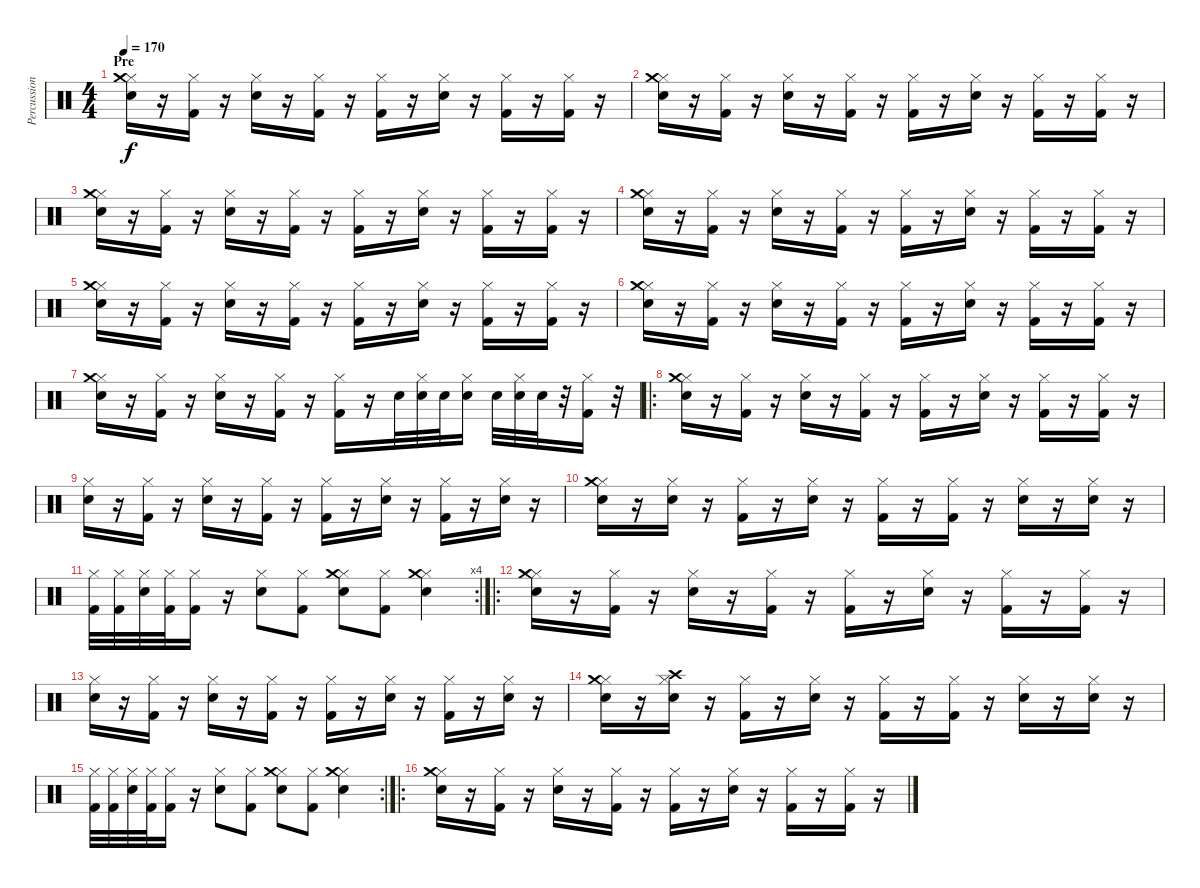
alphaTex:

\track ("Percussion" "Percussion") {instrument percussion}
\staff {score}
\articulation defaults
\ts (4 4)
\section ("" "Pre")
\tempo 170
\clef neutral
\ks c
("Snare (hit) 2" "Hi-Hat (closed)" "Crash medium (hit)").16{dy f} r.16 ("Kick (hit) 2" "Hi-Hat (closed)").16 r.16 ("Snare (hit) 2" "Hi-Hat (closed)").16 r.16 ("Kick (hit) 2" "Hi-Hat (closed)").16 r.16 ("Kick (hit) 2" "Hi-Hat (closed)").16 r.16 ("Snare (hit) 2" "Hi-Hat (closed)").16 r.16 ("Kick (hit) 2" "Hi-Hat (closed)").16 r.16 ("Kick (hit) 2" "Hi-Hat (closed)").16 r.16 |
("Snare (hit) 2" "Hi-Hat (closed)" "Crash medium (hit)").16 r.16 ("Kick (hit) 2" "Hi-Hat (closed)").16 r.16 ("Snare (hit) 2" "Hi-Hat (closed)").16 r.16 ("Kick (hit) 2" "Hi-Hat (closed)").16 r.16 ("Kick (hit) 2" "Hi-Hat (closed)").16 r.16 ("Snare (hit) 2" "Hi-Hat (closed)").16 r.16 ("Kick (hit) 2" "Hi-Hat (closed)").16 r.16 ("Kick (hit) 2" "Hi-Hat (closed)").16 r.16 |
("Snare (hit) 2" "Hi-Hat (closed)" "Crash medium (hit)").16 r.16 ("Kick (hit) 2" "Hi-Hat (closed)").16 r.16 ("Snare (hit) 2" "Hi-Hat (closed)").16 r.16 ("Kick (hit) 2" "Hi-Hat (closed)").16 r.16 ("Kick (hit) 2" "Hi-Hat (closed)").16 r.16 ("Snare (hit) 2" "Hi-Hat (closed)").16 r.16 ("Kick (hit) 2" "Hi-Hat (closed)").16 r.16 ("Kick (hit) 2" "Hi-Hat (closed)").16 r.16 |
("Snare (hit) 2" "Hi-Hat (closed)" "Crash medium (hit)").16 r.16 ("Kick (hit) 2" "Hi-Hat (closed)").16 r.16 ("Snare (hit) 2" "Hi-Hat (closed)").16 r.16 ("Kick (hit) 2" "Hi-Hat (closed)").16 r.16 ("Kick (hit) 2" "Hi-Hat (closed)").16 r.16 ("Snare (hit) 2" "Hi-Hat (closed)").16 r.16 ("Kick (hit) 2" "Hi-Hat (closed)").16 r.16 ("Kick (hit) 2" "Hi-Hat (closed)").16 r.16 |
("Snare (hit) 2" "Hi-Hat (closed)" "Crash medium (hit)").16 r.16 ("Kick (hit) 2" "Hi-Hat (closed)").16 r.16 ("Snare (hit) 2" "Hi-Hat (closed)").16 r.16 ("Kick (hit) 2" "Hi-Hat (closed)").16 r.16 ("Kick (hit) 2" "Hi-Hat (closed)").16 r.16 ("Snare (hit) 2" "Hi-Hat (closed)").16 r.16 ("Kick (hit) 2" "Hi-Hat (closed)").16 r.16 ("Kick (hit) 2" "Hi-Hat (closed)").16 r.16 |
("Snare (hit) 2" "Hi-Hat (closed)" "Crash medium (hit)").16 r.16 ("Kick (hit) 2" "Hi-Hat (closed)").16 r.16 ("Snare (hit) 2" "Hi-Hat (closed)").16 r.16 ("Kick (hit) 2" "Hi-Hat (closed)").16 r.16 ("Kick (hit) 2" "Hi-Hat (closed)").16 r.16 ("Snare (hit) 2" "Hi-Hat (closed)").16 r.16 ("Kick (hit) 2" "Hi-Hat (closed)").16 r.16 ("Kick (hit) 2" "Hi-Hat (closed)").16 r.16 |
("Snare (hit) 2" "Hi-Hat (closed)" "Crash medium (hit)").16 r.16 ("Kick (hit) 2" "Hi-Hat (closed)").16 r.16 ("Snare (hit) 2" "Hi-Hat (closed)").16 r.16 ("Kick (hit) 2" "Hi-Hat (closed)").16 r.16 ("Kick (hit) 2" "Hi-Hat (closed)").16 r.16 "Snare (hit) 2".32 ("Snare (hit) 2" "Hi-Hat (closed)").32 "Snare (hit) 2".32 ("Snare (hit) 2" "Hi-Hat (closed)").16 "Snare (hit) 2".32 ("Snare (hit) 2" "Hi-Hat (closed)").32 "Snare (hit) 2".32 r.32 ("Kick (hit) 2" "Hi-Hat (closed)").16 r.32 |
\ro
("Snare (hit) 2" "Hi-Hat (closed)" "Crash medium (hit)").16 r.16 ("Kick (hit) 2" "Hi-Hat (closed)").16 r.16 ("Snare (hit) 2" "Hi-Hat (closed)").16 r.16 ("Kick (hit) 2" "Hi-Hat (closed)").16 r.16 ("Kick (hit) 2" "Hi-Hat (closed)").16 r.16 ("Snare (hit) 2" "Hi-Hat (closed)").16 r.16 ("Kick (hit) 2" "Hi-Hat (closed)").16 r.16 ("Kick (hit) 2" "Hi-Hat (closed)").16 r.16 |
("Snare (hit) 2" "Hi-Hat (closed)").16 r.16 ("Kick (hit) 2" "Hi-Hat (closed)").16 r.16 ("Snare (hit) 2" "Hi-Hat (closed)").16 r.16 ("Kick (hit) 2" "Hi-Hat (closed)").16 r.16 ("Kick (hit) 2" "Hi-Hat (closed)").16 r.16 ("Snare (hit) 2" "Hi-Hat (closed)").16 r.16 ("Kick (hit) 2" "Hi-Hat (closed)").16 r.16 ("Snare (hit) 2" "Hi-Hat (closed)").16 r.16 |
("Hi-Hat (closed)" "Snare (hit) 2" "Crash medium (hit)").16 r.16 ("Snare (hit) 2" "Hi-Hat (closed)").16 r.16 ("Kick (hit) 2" "Hi-Hat (closed)").16 r.16 ("Snare (hit) 2" "Hi-Hat (closed)").16 r.16 ("Kick (hit) 2" "Hi-Hat (closed)").16 r.16 ("Kick (hit) 2" "Hi-Hat (closed)").16 r.16 ("Snare (hit) 2" "Hi-Hat (closed)").16 r.16 ("Snare (hit) 2" "Hi-Hat (closed)").16 r.16 |
\rc 4
("Kick (hit) 2" "Hi-Hat (closed)").32 ("Kick (hit) 2" "Hi-Hat (closed)").32 ("Snare (hit) 2" "Hi-Hat (closed)").32 ("Kick (hit) 2" "Hi-Hat (closed)").32 ("Kick (hit) 2" "Hi-Hat (closed)").16 r.16 ("Snare (hit) 2" "Hi-Hat (closed)").8 ("Kick (hit) 2" "Hi-Hat (closed)").8 ("Snare (hit) 2" "Hi-Hat (closed)" "Crash medium (hit)").8 ("Kick (hit) 2" "Hi-Hat (closed)").8 ("Snare (hit) 2" "Hi-Hat (closed)" "Crash medium (hit)").4 |
\ro
("Snare (hit) 2" "Hi-Hat (closed)" "Crash medium (hit)").16 r.16 ("Kick (hit) 2" "Hi-Hat (closed)").16 r.16 ("Snare (hit) 2" "Hi-Hat (closed)").16 r.16 ("Kick (hit) 2" "Hi-Hat (closed)").16 r.16 ("Kick (hit) 2" "Hi-Hat (closed)").16 r.16 ("Snare (hit) 2" "Hi-Hat (closed)").16 r.16 ("Kick (hit) 2" "Hi-Hat (closed)").16 r.16 ("Kick (hit) 2" "Hi-Hat (closed)").16 r.16 |
("Snare (hit) 2" "Hi-Hat (closed)").16 r.16 ("Kick (hit) 2" "Hi-Hat (closed)").16 r.16 ("Snare (hit) 2" "Hi-Hat (closed)").16 r.16 ("Kick (hit) 2" "Hi-Hat (closed)").16 r.16 ("Kick (hit) 2" "Hi-Hat (closed)").16 r.16 ("Snare (hit) 2" "Hi-Hat (closed)").16 r.16 ("Kick (hit) 2" "Hi-Hat (closed)").16 r.16 ("Snare (hit) 2" "Hi-Hat (closed)").16 r.16 |
("Hi-Hat (closed)" "Snare (hit) 2" "Crash medium (hit)").16 r.16 ("Snare (hit) 2" "Hi-Hat (closed)" "Crash high (hit)").16 r.16 ("Kick (hit) 2" "Hi-Hat (closed)").16 r.16 ("Snare (hit) 2" "Hi-Hat (closed)").16 r.16 ("Kick (hit) 2" "Hi-Hat (closed)").16 r.16 ("Kick (hit) 2" "Hi-Hat (closed)").16 r.16 ("Snare (hit) 2" "Hi-Hat (closed)").16 r.16 ("Snare (hit) 2" "Hi-Hat (closed)").16 r.16 |
\rc 2
("Kick (hit) 2" "Hi-Hat (closed)").32 ("Kick (hit) 2" "Hi-Hat (closed)").32 ("Snare (hit) 2" "Hi-Hat (closed)").32 ("Kick (hit) 2" "Hi-Hat (closed)").32 ("Kick (hit) 2" "Hi-Hat (closed)").16 r.16 ("Snare (hit) 2" "Hi-Hat (closed)").8 ("Kick (hit) 2" "Hi-Hat (closed)").8 ("Snare (hit) 2" "Hi-Hat (closed)" "Crash medium (hit)").8 ("Kick (hit) 2" "Hi-Hat (closed)").8 ("Snare (hit) 2" "Hi-Hat (closed)" "Crash medium (hit)").4 |
\ro
("Snare (hit) 2" "Hi-Hat (closed)" "Crash medium (hit)").16 r.16 ("Kick (hit) 2" "Hi-Hat (closed)").16 r.16 ("Snare (hit) 2" "Hi-Hat (closed)").16 r.16 ("Kick (hit) 2" "Hi-Hat (closed)").16 r.16 ("Kick (hit) 2" "Hi-Hat (closed)").16 r.16 ("Snare (hit) 2" "Hi-Hat (closed)").16 r.16 ("Kick (hit) 2" "Hi-Hat (closed)").16 r.16 ("Kick (hit) 2" "Hi-Hat (closed)").16 r.16
